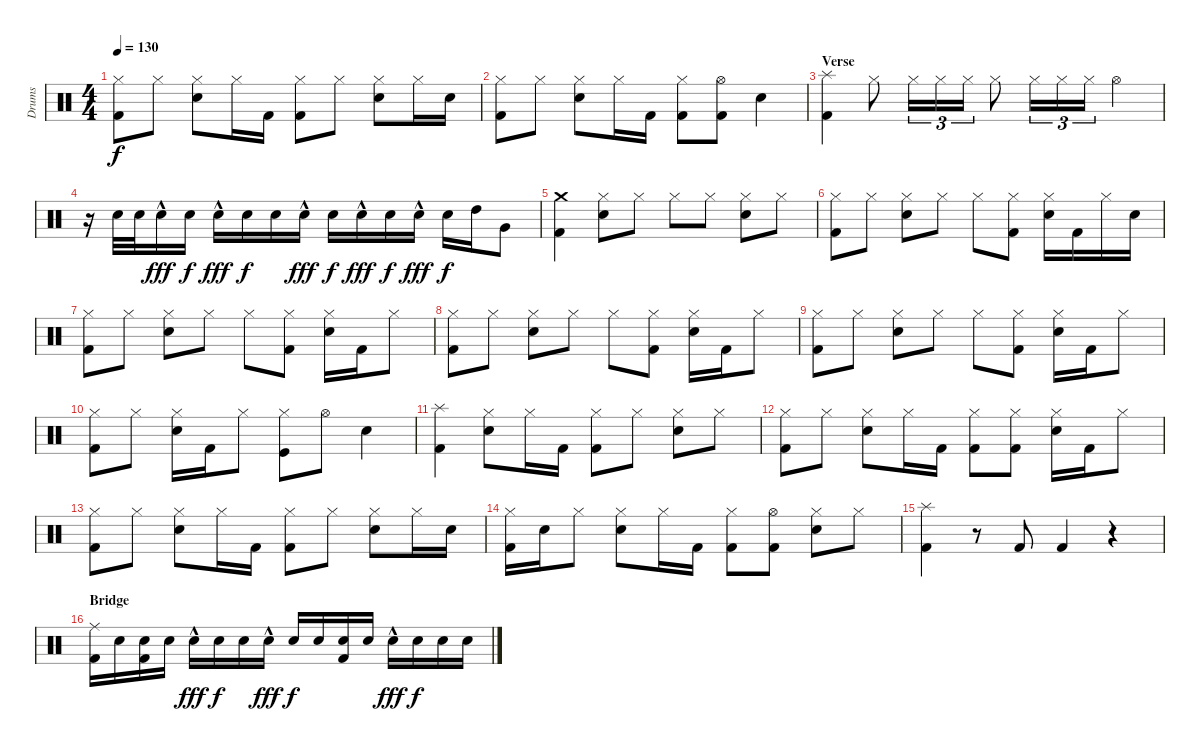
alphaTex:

\track ("Drums" "Drums") {instrument percussion}
\staff {score}
\articulation defaults
\ts (4 4)
\tempo 130
\clef neutral
\ks c
("Hi-Hat (closed)" "Kick (hit) 2").8{dy f} "Hi-Hat (closed)".8 ("Hi-Hat (closed)" "Snare (hit) 2").8 "Hi-Hat (closed)".16 "Kick (hit) 2".16 ("Hi-Hat (closed)" "Kick (hit) 2").8 "Hi-Hat (closed)".8 ("Hi-Hat (closed)" "Snare (hit) 2").8 "Hi-Hat (closed)".16 "Snare (hit) 2".16 |
("Hi-Hat (closed)" "Kick (hit) 2").8 "Hi-Hat (closed)".8 ("Hi-Hat (closed)" "Snare (hit) 2").8 "Hi-Hat (closed)".16 "Kick (hit) 2".16 ("Hi-Hat (closed)" "Kick (hit) 2").8 ("Hi-Hat (open)" "Kick (hit) 2").8 "Snare (hit) 2".4 |
\section ("" "Verse")
("Splash (hit)" "Kick (hit) 2").4 "Hi-Hat (closed)".8 "Hi-Hat (closed)".16{tu (3 2)} "Hi-Hat (closed)".16{tu (3 2)} "Hi-Hat (closed)".16{tu (3 2)} "Hi-Hat (closed)".8 "Hi-Hat (closed)".16{tu (3 2)} "Hi-Hat (closed)".16{tu (3 2)} "Hi-Hat (closed)".16{tu (3 2)} "Hi-Hat (open)".4 |
r.16 "Snare (hit) 2".32 "Snare (hit) 2".32 "Snare (hit) 2"{hac}.16{dy fff} "Snare (hit) 2".16{dy f} "Snare (hit) 2"{hac}.16{dy fff} "Snare (hit) 2".16{dy f} "Snare (hit) 2".16 "Snare (hit) 2"{hac}.16{dy fff} "Snare (hit) 2".16{dy f} "Snare (hit) 2"{hac}.16{dy fff} "Snare (hit) 2".16{dy f} "Snare (hit) 2"{hac}.16{dy fff} "Snare (hit) 2".16{dy f} "High Tom (hit)".16 "Very Low Tom (hit)".8 |
("Crash medium (hit)" "Kick (hit) 2").4 ("Hi-Hat (closed)" "Snare (hit) 2").8 "Hi-Hat (closed)".8 "Hi-Hat (closed)".8 "Hi-Hat (closed)".8 ("Hi-Hat (closed)" "Snare (hit) 2").8 "Hi-Hat (closed)".8 |
("Hi-Hat (closed)" "Kick (hit) 2").8 "Hi-Hat (closed)".8 ("Hi-Hat (closed)" "Snare (hit) 2").8 "Hi-Hat (closed)".8 "Hi-Hat (closed)".8 ("Hi-Hat (closed)" "Kick (hit) 2").8 ("Hi-Hat (closed)" "Snare (hit) 2").16 "Kick (hit) 2".16 "Hi-Hat (closed)".16 "Snare (hit) 2".16 |
("Hi-Hat (closed)" "Kick (hit) 2").8 "Hi-Hat (closed)".8 ("Hi-Hat (closed)" "Snare (hit) 2").8 "Hi-Hat (closed)".8 "Hi-Hat (closed)".8 ("Hi-Hat (closed)" "Kick (hit) 2").8 ("Hi-Hat (closed)" "Snare (hit) 2").16 "Kick (hit) 2".16 "Hi-Hat (closed)".8 |
("Hi-Hat (closed)" "Kick (hit) 2").8 "Hi-Hat (closed)".8 ("Hi-Hat (closed)" "Snare (hit) 2").8 "Hi-Hat (closed)".8 "Hi-Hat (closed)".8 ("Hi-Hat (closed)" "Kick (hit) 2").8 ("Hi-Hat (closed)" "Snare (hit) 2").16 "Kick (hit) 2".16 "Hi-Hat (closed)".8 |
("Hi-Hat (closed)" "Kick (hit) 2").8 "Hi-Hat (closed)".8 ("Hi-Hat (closed)" "Snare (hit) 2").8 "Hi-Hat (closed)".8 "Hi-Hat (closed)".8 ("Hi-Hat (closed)" "Kick (hit) 2").8 ("Hi-Hat (closed)" "Snare (hit) 2").16 "Kick (hit) 2".16 "Hi-Hat (closed)".8 |
("Hi-Hat (closed)" "Kick (hit) 2").8 "Hi-Hat (closed)".8 ("Hi-Hat (closed)" "Snare (hit) 2").16 "Kick (hit) 2".16 "Hi-Hat (closed)".8 ("Hi-Hat (closed)" "Kick (hit)").8 "Hi-Hat (open)".8 "Snare (hit) 2".4 |
("Splash (hit)" "Kick (hit) 2").4 ("Hi-Hat (closed)" "Snare (hit) 2").8 "Hi-Hat (closed)".16 "Kick (hit) 2".16 ("Hi-Hat (closed)" "Kick (hit) 2").8 "Hi-Hat (closed)".8 ("Hi-Hat (closed)" "Snare (hit) 2").8 "Hi-Hat (closed)".8 |
("Hi-Hat (closed)" "Kick (hit) 2").8 "Hi-Hat (closed)".8 ("Hi-Hat (closed)" "Snare (hit) 2").8 "Hi-Hat (closed)".16 "Kick (hit) 2".16 ("Hi-Hat (closed)" "Kick (hit) 2").8 ("Hi-Hat (closed)" "Kick (hit) 2").8 ("Hi-Hat (closed)" "Snare (hit) 2").16 "Kick (hit) 2".16 "Hi-Hat (closed)".8 |
("Hi-Hat (closed)" "Kick (hit) 2").8 "Hi-Hat (closed)".8 ("Hi-Hat (closed)" "Snare (hit) 2").8 "Hi-Hat (closed)".16 "Kick (hit) 2".16 ("Hi-Hat (closed)" "Kick (hit) 2").8 "Hi-Hat (closed)".8 ("Hi-Hat (closed)" "Snare (hit) 2").8 "Hi-Hat (closed)".16 "Snare (hit) 2".16 |
("Hi-Hat (closed)" "Kick (hit) 2").16 "Snare (hit) 2".16 "Hi-Hat (closed)".8 ("Hi-Hat (closed)" "Snare (hit) 2").8 "Hi-Hat (closed)".16 "Kick (hit) 2".16 ("Hi-Hat (closed)" "Kick (hit) 2").8 ("Hi-Hat (open)" "Kick (hit) 2").8 ("Hi-Hat (closed)" "Snare (hit) 2").8 "Hi-Hat (closed)".8 |
("Splash (hit)" "Kick (hit) 2").4 r.8 "Kick (hit) 2".8 "Kick (hit) 2".4 r.4 |
\section ("" "Bridge")
("Ride (middle)" "Kick (hit) 2").16 "Snare (hit) 2".16 ("Snare (hit) 2" "Kick (hit) 2").16 "Snare (hit) 2".16 "Snare (hit) 2"{hac}.16{dy fff} "Snare (hit) 2".16{dy f} "Snare (hit) 2".16 "Snare (hit) 2"{hac}.16{dy fff} "Snare (hit) 2".16{dy f} "Snare (hit) 2".16 ("Snare (hit) 2" "Kick (hit) 2").16 "Snare (hit) 2".16 "Snare (hit) 2"{hac}.16{dy fff} "Snare (hit) 2".16{dy f} "Snare (hit) 2".16 "Snare (hit) 2".16
